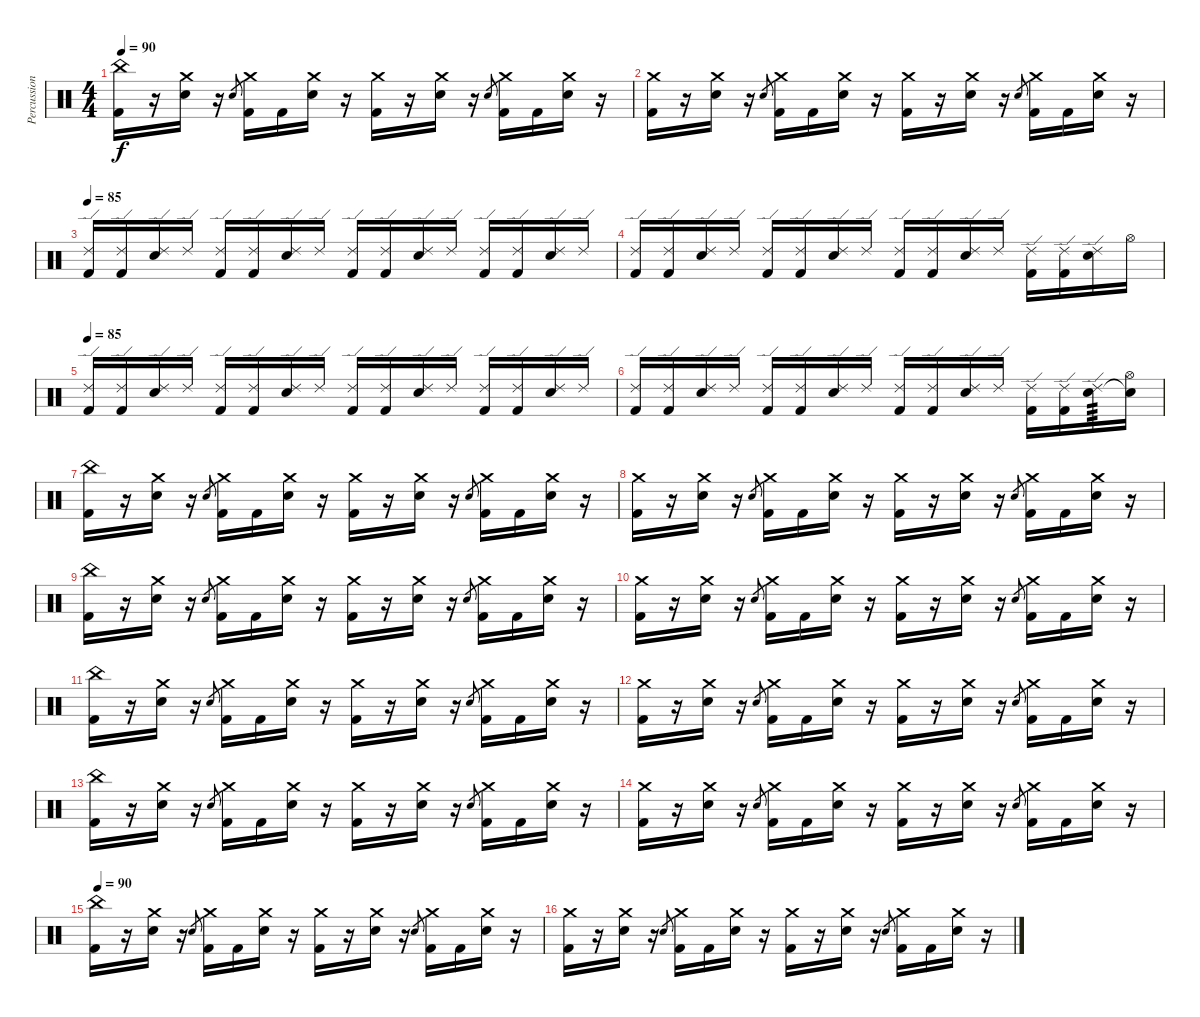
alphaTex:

\track ("Percussioni" "Percussion") {instrument percussion}
\staff {score}
\articulation defaults
\ts (4 4)
\tempo 90
\clef neutral
\ks c
("China (hit)" "Kick (hit) 2").16{dy f} r.16 ("Crash medium (hit)" "Snare (hit) 2").16 r.16 "Snare (hit) 2".8{gr} ("Crash medium (hit)" "Kick (hit) 2").16 "Kick (hit) 2".16 ("Crash medium (hit)" "Snare (hit) 2").16 r.16 ("Crash medium (hit)" "Kick (hit) 2").16 r.16 ("Crash medium (hit)" "Snare (hit) 2").16 r.16 "Snare (hit) 2".8{gr} ("Crash medium (hit)" "Kick (hit) 2").16 "Kick (hit) 2".16 ("Crash medium (hit)" "Snare (hit) 2").16 r.16 |
("Crash medium (hit)" "Kick (hit) 2").16 r.16 ("Crash medium (hit)" "Snare (hit) 2").16 r.16 "Snare (hit) 2".8{gr} ("Crash medium (hit)" "Kick (hit) 2").16 "Kick (hit) 2".16 ("Crash medium (hit)" "Snare (hit) 2").16 r.16 ("Crash medium (hit)" "Kick (hit) 2").16 r.16 ("Crash medium (hit)" "Snare (hit) 2").16 r.16 "Snare (hit) 2".8{gr} ("Crash medium (hit)" "Kick (hit) 2").16 "Kick (hit) 2".16 ("Crash medium (hit)" "Snare (hit) 2").16 r.16 |
\tempo 85
("Ride (edge) 2" "Kick (hit) 2").16 ("Ride (edge) 2" "Kick (hit) 2").16 ("Ride (edge) 2" "Snare (hit) 2").16 "Ride (edge) 2".16 ("Ride (edge) 2" "Kick (hit) 2").16 ("Ride (edge) 2" "Kick (hit) 2").16 ("Ride (edge) 2" "Snare (hit) 2").16 "Ride (edge) 2".16 ("Ride (edge) 2" "Kick (hit) 2").16 ("Ride (edge) 2" "Kick (hit) 2").16 ("Ride (edge) 2" "Snare (hit) 2").16 "Ride (edge) 2".16 ("Ride (edge) 2" "Kick (hit) 2").16 ("Ride (edge) 2" "Kick (hit) 2").16 ("Ride (edge) 2" "Snare (hit) 2").16 "Ride (edge) 2".16 |
("Ride (edge) 2" "Kick (hit) 2").16 ("Ride (edge) 2" "Kick (hit) 2").16 ("Ride (edge) 2" "Snare (hit) 2").16 "Ride (edge) 2".16 ("Ride (edge) 2" "Kick (hit) 2").16 ("Ride (edge) 2" "Kick (hit) 2").16 ("Ride (edge) 2" "Snare (hit) 2").16 "Ride (edge) 2".16 ("Ride (edge) 2" "Kick (hit) 2").16 ("Ride (edge) 2" "Kick (hit) 2").16 ("Ride (edge) 2" "Snare (hit) 2").16 "Ride (edge) 2".16 ("Ride (edge) 2" "Kick (hit) 2").16 ("Ride (edge) 2" "Kick (hit) 2").16 ("Ride (edge) 2" "Snare (hit) 2").16 "Hi-Hat (open)".16 |
\tempo 85
("Ride (edge) 2" "Kick (hit) 2").16 ("Ride (edge) 2" "Kick (hit) 2").16 ("Ride (edge) 2" "Snare (hit) 2").16 "Ride (edge) 2".16 ("Ride (edge) 2" "Kick (hit) 2").16 ("Ride (edge) 2" "Kick (hit) 2").16 ("Ride (edge) 2" "Snare (hit) 2").16 "Ride (edge) 2".16 ("Ride (edge) 2" "Kick (hit) 2").16 ("Ride (edge) 2" "Kick (hit) 2").16 ("Ride (edge) 2" "Snare (hit) 2").16 "Ride (edge) 2".16 ("Ride (edge) 2" "Kick (hit) 2").16 ("Ride (edge) 2" "Kick (hit) 2").16 ("Ride (edge) 2" "Snare (hit) 2").16 "Ride (edge) 2".16 |
("Ride (edge) 2" "Kick (hit) 2").16 ("Ride (edge) 2" "Kick (hit) 2").16 ("Ride (edge) 2" "Snare (hit) 2").16 "Ride (edge) 2".16 ("Ride (edge) 2" "Kick (hit) 2").16 ("Ride (edge) 2" "Kick (hit) 2").16 ("Ride (edge) 2" "Snare (hit) 2").16 "Ride (edge) 2".16 ("Ride (edge) 2" "Kick (hit) 2").16 ("Ride (edge) 2" "Kick (hit) 2").16 ("Ride (edge) 2" "Snare (hit) 2").16 "Ride (edge) 2".16 ("Ride (edge) 2" "Kick (hit) 2").16 ("Ride (edge) 2" "Kick (hit) 2").16 ("Ride (edge) 2" "Snare (hit) 2").16{tp 3} ("Hi-Hat (open)" "Snare (hit)"{t}).16 |
("China (hit)" "Kick (hit) 2").16 r.16 ("Crash medium (hit)" "Snare (hit) 2").16 r.16 "Snare (hit) 2".8{gr} ("Crash medium (hit)" "Kick (hit) 2").16 "Kick (hit) 2".16 ("Crash medium (hit)" "Snare (hit) 2").16 r.16 ("Crash medium (hit)" "Kick (hit) 2").16 r.16 ("Crash medium (hit)" "Snare (hit) 2").16 r.16 "Snare (hit) 2".8{gr} ("Crash medium (hit)" "Kick (hit) 2").16 "Kick (hit) 2".16 ("Crash medium (hit)" "Snare (hit) 2").16 r.16 |
("Crash medium (hit)" "Kick (hit) 2").16 r.16 ("Crash medium (hit)" "Snare (hit) 2").16 r.16 "Snare (hit) 2".8{gr} ("Crash medium (hit)" "Kick (hit) 2").16 "Kick (hit) 2".16 ("Crash medium (hit)" "Snare (hit) 2").16 r.16 ("Crash medium (hit)" "Kick (hit) 2").16 r.16 ("Crash medium (hit)" "Snare (hit) 2").16 r.16 "Snare (hit) 2".8{gr} ("Crash medium (hit)" "Kick (hit) 2").16 "Kick (hit) 2".16 ("Crash medium (hit)" "Snare (hit) 2").16 r.16 |
("China (hit)" "Kick (hit) 2").16 r.16 ("Crash medium (hit)" "Snare (hit) 2").16 r.16 "Snare (hit) 2".8{gr} ("Crash medium (hit)" "Kick (hit) 2").16 "Kick (hit) 2".16 ("Crash medium (hit)" "Snare (hit) 2").16 r.16 ("Crash medium (hit)" "Kick (hit) 2").16 r.16 ("Crash medium (hit)" "Snare (hit) 2").16 r.16 "Snare (hit) 2".8{gr} ("Crash medium (hit)" "Kick (hit) 2").16 "Kick (hit) 2".16 ("Crash medium (hit)" "Snare (hit) 2").16 r.16 |
("Crash medium (hit)" "Kick (hit) 2").16 r.16 ("Crash medium (hit)" "Snare (hit) 2").16 r.16 "Snare (hit) 2".8{gr} ("Crash medium (hit)" "Kick (hit) 2").16 "Kick (hit) 2".16 ("Crash medium (hit)" "Snare (hit) 2").16 r.16 ("Crash medium (hit)" "Kick (hit) 2").16 r.16 ("Crash medium (hit)" "Snare (hit) 2").16 r.16 "Snare (hit) 2".8{gr} ("Crash medium (hit)" "Kick (hit) 2").16 "Kick (hit) 2".16 ("Crash medium (hit)" "Snare (hit) 2").16 r.16 |
("China (hit)" "Kick (hit) 2").16 r.16 ("Crash medium (hit)" "Snare (hit) 2").16 r.16 "Snare (hit) 2".8{gr} ("Crash medium (hit)" "Kick (hit) 2").16 "Kick (hit) 2".16 ("Crash medium (hit)" "Snare (hit) 2").16 r.16 ("Crash medium (hit)" "Kick (hit) 2").16 r.16 ("Crash medium (hit)" "Snare (hit) 2").16 r.16 "Snare (hit) 2".8{gr} ("Crash medium (hit)" "Kick (hit) 2").16 "Kick (hit) 2".16 ("Crash medium (hit)" "Snare (hit) 2").16 r.16 |
("Crash medium (hit)" "Kick (hit) 2").16 r.16 ("Crash medium (hit)" "Snare (hit) 2").16 r.16 "Snare (hit) 2".8{gr} ("Crash medium (hit)" "Kick (hit) 2").16 "Kick (hit) 2".16 ("Crash medium (hit)" "Snare (hit) 2").16 r.16 ("Crash medium (hit)" "Kick (hit) 2").16 r.16 ("Crash medium (hit)" "Snare (hit) 2").16 r.16 "Snare (hit) 2".8{gr} ("Crash medium (hit)" "Kick (hit) 2").16 "Kick (hit) 2".16 ("Crash medium (hit)" "Snare (hit) 2").16 r.16 |
("China (hit)" "Kick (hit) 2").16 r.16 ("Crash medium (hit)" "Snare (hit) 2").16 r.16 "Snare (hit) 2".8{gr} ("Crash medium (hit)" "Kick (hit) 2").16 "Kick (hit) 2".16 ("Crash medium (hit)" "Snare (hit) 2").16 r.16 ("Crash medium (hit)" "Kick (hit) 2").16 r.16 ("Crash medium (hit)" "Snare (hit) 2").16 r.16 "Snare (hit) 2".8{gr} ("Crash medium (hit)" "Kick (hit) 2").16 "Kick (hit) 2".16 ("Crash medium (hit)" "Snare (hit) 2").16 r.16 |
("Crash medium (hit)" "Kick (hit) 2").16 r.16 ("Crash medium (hit)" "Snare (hit) 2").16 r.16 "Snare (hit) 2".8{gr} ("Crash medium (hit)" "Kick (hit) 2").16 "Kick (hit) 2".16 ("Crash medium (hit)" "Snare (hit) 2").16 r.16 ("Crash medium (hit)" "Kick (hit) 2").16 r.16 ("Crash medium (hit)" "Snare (hit) 2").16 r.16 "Snare (hit) 2".8{gr} ("Crash medium (hit)" "Kick (hit) 2").16 "Kick (hit) 2".16 ("Crash medium (hit)" "Snare (hit) 2").16 r.16 |
\tempo 90
("China (hit)" "Kick (hit) 2").16 r.16 ("Crash medium (hit)" "Snare (hit) 2").16 r.16 "Snare (hit) 2".8{gr} ("Crash medium (hit)" "Kick (hit) 2").16 "Kick (hit) 2".16 ("Crash medium (hit)" "Snare (hit) 2").16 r.16 ("Crash medium (hit)" "Kick (hit) 2").16 r.16 ("Crash medium (hit)" "Snare (hit) 2").16 r.16 "Snare (hit) 2".8{gr} ("Crash medium (hit)" "Kick (hit) 2").16 "Kick (hit) 2".16 ("Crash medium (hit)" "Snare (hit) 2").16 r.16 |
("Crash medium (hit)" "Kick (hit) 2").16 r.16 ("Crash medium (hit)" "Snare (hit) 2").16 r.16 "Snare (hit) 2".8{gr} ("Crash medium (hit)" "Kick (hit) 2").16 "Kick (hit) 2".16 ("Crash medium (hit)" "Snare (hit) 2").16 r.16 ("Crash medium (hit)" "Kick (hit) 2").16 r.16 ("Crash medium (hit)" "Snare (hit) 2").16 r.16 "Snare (hit) 2".8{gr} ("Crash medium (hit)" "Kick (hit) 2").16 "Kick (hit) 2".16 ("Crash medium (hit)" "Snare (hit) 2").16 r.16
